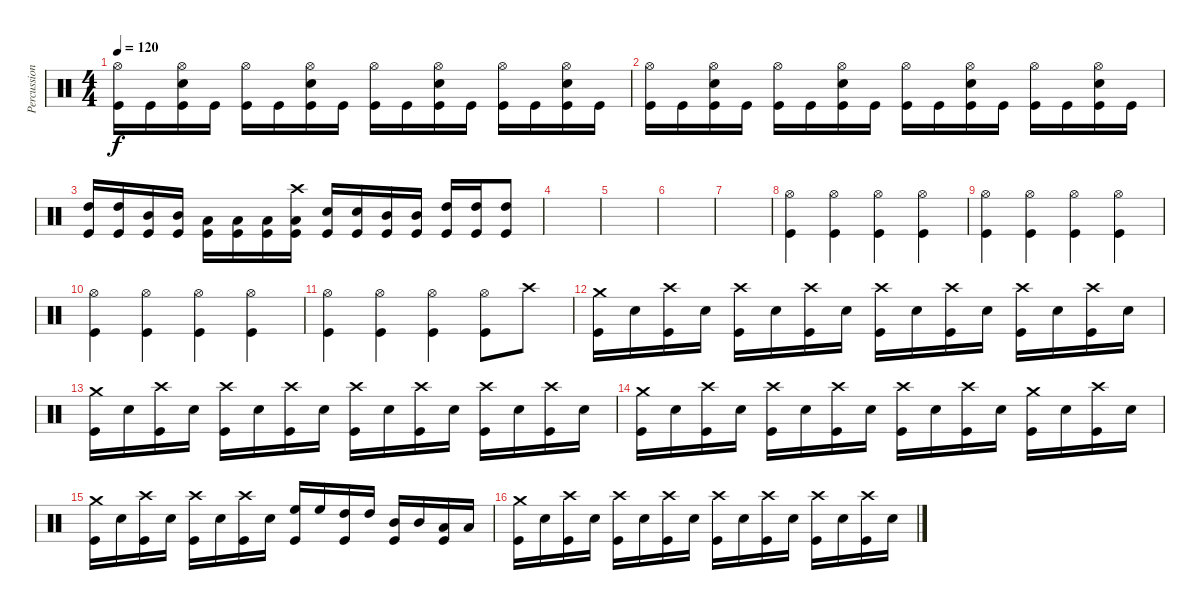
\track ("Percussioni" "Percussion") {instrument percussion}
\staff {score}
\articulation defaults
\ts (4 4)
\tempo 120
\clef neutral
\ks c
("Hi-Hat (open)" "Kick (hit)").16{dy f} "Kick (hit)".16 ("Hi-Hat (open)" "Electric Snare (hit)" "Kick (hit)").16 "Kick (hit)".16 ("Hi-Hat (open)" "Kick (hit)").16 "Kick (hit)".16 ("Hi-Hat (open)" "Electric Snare (hit)" "Kick (hit)").16 "Kick (hit)".16 ("Hi-Hat (open)" "Kick (hit)").16 "Kick (hit)".16 ("Hi-Hat (open)" "Electric Snare (hit)" "Kick (hit)").16 "Kick (hit)".16 ("Hi-Hat (open)" "Kick (hit)").16 "Kick (hit)".16 ("Hi-Hat (open)" "Electric Snare (hit)" "Kick (hit)").16 "Kick (hit)".16 |
("Hi-Hat (open)" "Kick (hit)").16 "Kick (hit)".16 ("Hi-Hat (open)" "Electric Snare (hit)" "Kick (hit)").16 "Kick (hit)".16 ("Hi-Hat (open)" "Kick (hit)").16 "Kick (hit)".16 ("Hi-Hat (open)" "Electric Snare (hit)" "Kick (hit)").16 "Kick (hit)".16 ("Hi-Hat (open)" "Kick (hit)").16 "Kick (hit)".16 ("Hi-Hat (open)" "Electric Snare (hit)" "Kick (hit)").16 "Kick (hit)".16 ("Hi-Hat (open)" "Kick (hit)").16 "Kick (hit)".16 ("Hi-Hat (open)" "Electric Snare (hit)" "Kick (hit)").16 "Kick (hit)".16 |
("High Tom (hit)" "Kick (hit)").16 ("High Tom (hit)" "Kick (hit)").16 ("Mid Tom (hit)" "Kick (hit)").16 ("Mid Tom (hit)" "Kick (hit)").16 ("Low Tom (hit)" "Kick (hit)").16 ("Low Tom (hit)" "Kick (hit)").16 ("Low Tom (hit)" "Kick (hit)").16 ("Crash high (hit)" "Low Tom (hit)" "Kick (hit)").16 ("Electric Snare (hit)" "Kick (hit)").16 ("Electric Snare (hit)" "Kick (hit)").16 ("Mid Tom (hit)" "Kick (hit)").16 ("Mid Tom (hit)" "Kick (hit)").16 ("High Tom (hit)" "Kick (hit)").16 ("High Tom (hit)" "Kick (hit)").16 ("High Tom (hit)" "Kick (hit)").8 |
|
|
|
|
("Hi-Hat (open)" "Kick (hit)").4 ("Hi-Hat (open)" "Kick (hit)").4 ("Hi-Hat (open)" "Kick (hit)").4 ("Hi-Hat (open)" "Kick (hit)").4 |
("Hi-Hat (open)" "Kick (hit)").4 ("Hi-Hat (open)" "Kick (hit)").4 ("Hi-Hat (open)" "Kick (hit)").4 ("Hi-Hat (open)" "Kick (hit)").4 |
("Hi-Hat (open)" "Kick (hit)").4 ("Hi-Hat (open)" "Kick (hit)").4 ("Hi-Hat (open)" "Kick (hit)").4 ("Hi-Hat (open)" "Kick (hit)").4 |
("Hi-Hat (open)" "Kick (hit)").4 ("Hi-Hat (open)" "Kick (hit)").4 ("Hi-Hat (open)" "Kick (hit)").4 ("Hi-Hat (open)" "Kick (hit)").8 "Crash high (hit)".8 |
("Crash medium (hit)" "Kick (hit)").16 "Electric Snare (hit)".16 ("Crash high (hit)" "Kick (hit)").16 "Electric Snare (hit)".16 ("Crash high (hit)" "Kick (hit)").16 "Electric Snare (hit)".16 ("Crash high (hit)" "Kick (hit)").16 "Electric Snare (hit)".16 ("Crash high (hit)" "Kick (hit)").16 "Electric Snare (hit)".16 ("Crash high (hit)" "Kick (hit)").16 "Electric Snare (hit)".16 ("Crash high (hit)" "Kick (hit)").16 "Electric Snare (hit)".16 ("Crash high (hit)" "Kick (hit)").16 "Electric Snare (hit)".16 |
("Crash medium (hit)" "Kick (hit)").16 "Electric Snare (hit)".16 ("Crash high (hit)" "Kick (hit)").16 "Electric Snare (hit)".16 ("Crash high (hit)" "Kick (hit)").16 "Electric Snare (hit)".16 ("Crash high (hit)" "Kick (hit)").16 "Electric Snare (hit)".16 ("Crash high (hit)" "Kick (hit)").16 "Electric Snare (hit)".16 ("Crash high (hit)" "Kick (hit)").16 "Electric Snare (hit)".16 ("Crash high (hit)" "Kick (hit)").16 "Electric Snare (hit)".16 ("Crash high (hit)" "Kick (hit)").16 "Electric Snare (hit)".16 |
("Crash medium (hit)" "Kick (hit)").16 "Electric Snare (hit)".16 ("Crash high (hit)" "Kick (hit)").16 "Electric Snare (hit)".16 ("Crash high (hit)" "Kick (hit)").16 "Electric Snare (hit)".16 ("Crash high (hit)" "Kick (hit)").16 "Electric Snare (hit)".16 ("Crash high (hit)" "Kick (hit)").16 "Electric Snare (hit)".16 ("Crash high (hit)" "Kick (hit)").16 "Electric Snare (hit)".16 ("Crash medium (hit)" "Kick (hit)").16 "Electric Snare (hit)".16 ("Crash high (hit)" "Kick (hit)").16 "Electric Snare (hit)".16 |
("Crash medium (hit)" "Kick (hit)").16 "Electric Snare (hit)".16 ("Crash high (hit)" "Kick (hit)").16 "Electric Snare (hit)".16 ("Crash high (hit)" "Kick (hit)").16 "Electric Snare (hit)".16 ("Crash high (hit)" "Kick (hit)").16 "Electric Snare (hit)".16 ("High Floor Tom (hit)" "Kick (hit)").16 "High Floor Tom (hit)".16 ("High Tom (hit)" "Kick (hit)").16 "High Tom (hit)".16 ("Mid Tom (hit)" "Kick (hit)").16 "Mid Tom (hit)".16 ("Low Tom (hit)" "Kick (hit)").16 "Low Tom (hit)".16 |
("Crash medium (hit)" "Kick (hit)").16 "Electric Snare (hit)".16 ("Crash high (hit)" "Kick (hit)").16 "Electric Snare (hit)".16 ("Crash high (hit)" "Kick (hit)").16 "Electric Snare (hit)".16 ("Crash high (hit)" "Kick (hit)").16 "Electric Snare (hit)".16 ("Crash high (hit)" "Kick (hit)").16 "Electric Snare (hit)".16 ("Crash high (hit)" "Kick (hit)").16 "Electric Snare (hit)".16 ("Crash high (hit)" "Kick (hit)").16 "Electric Snare (hit)".16 ("Crash high (hit)" "Kick (hit)").16 "Electric Snare (hit)".16
